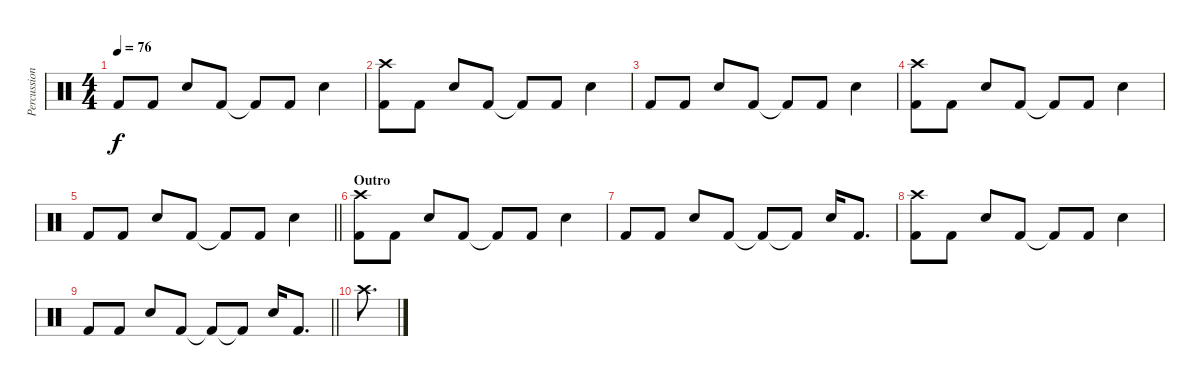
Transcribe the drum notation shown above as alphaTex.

\track ("Percussion" "Percussion") {instrument percussion}
\staff {score}
\articulation defaults
\ts (4 4)
\tempo 76
\clef neutral
\ks c "Kick (hit) 2".8{dy f} "Kick (hit) 2".8 "Electric Snare (hit)".8 "Kick (hit) 2".8 "Kick (hit) 2"{t}.8 "Kick (hit) 2".8 "Electric Snare (hit)".4
|
("Kick (hit) 2" "Crash high (hit)").8 "Kick (hit) 2".8 "Electric Snare (hit)".8 "Kick (hit) 2".8 "Kick (hit) 2"{t}.8 "Kick (hit) 2".8 "Electric Snare (hit)".4 |
"Kick (hit) 2".8 "Kick (hit) 2".8 "Electric Snare (hit)".8 "Kick (hit) 2".8 "Kick (hit) 2"{t}.8 "Kick (hit) 2".8 "Electric Snare (hit)".4 |
("Kick (hit) 2" "Crash high (hit)").8 "Kick (hit) 2".8 "Electric Snare (hit)".8 "Kick (hit) 2".8 "Kick (hit) 2"{t}.8 "Kick (hit) 2".8 "Electric Snare (hit)".4 |
\barLineRight lightlight "Kick (hit) 2".8 "Kick (hit) 2".8 "Electric Snare (hit)".8 "Kick (hit) 2".8 "Kick (hit) 2"{t}.8 "Kick (hit) 2".8 "Electric Snare (hit)".4
|
\section ("" "Outro")
("Kick (hit) 2" "Crash high (hit)").8 "Kick (hit) 2".8 "Electric Snare (hit)".8 "Kick (hit) 2".8 "Kick (hit) 2"{t}.8 "Kick (hit) 2".8 "Electric Snare (hit)".4 |
"Kick (hit) 2".8 "Kick (hit) 2".8 "Electric Snare (hit)".8 "Kick (hit) 2".8 "Kick (hit) 2"{t}.8 "Kick (hit) 2"{t}.8 "Electric Snare (hit)".16 "Kick (hit) 2".8{d} |
("Kick (hit) 2" "Crash high (hit)").8 "Kick (hit) 2".8 "Electric Snare (hit)".8 "Kick (hit) 2".8 "Kick (hit) 2"{t}.8 "Kick (hit) 2".8 "Electric Snare (hit)".4 |
\barLineRight lightlight "Kick (hit) 2".8 "Kick (hit) 2".8 "Electric Snare (hit)".8 "Kick (hit) 2".8 "Kick (hit) 2"{t}.8 "Kick (hit) 2"{t}.8 "Electric Snare (hit)".16 "Kick (hit) 2".8{d}
|
"Crash high (hit)".8{d}
